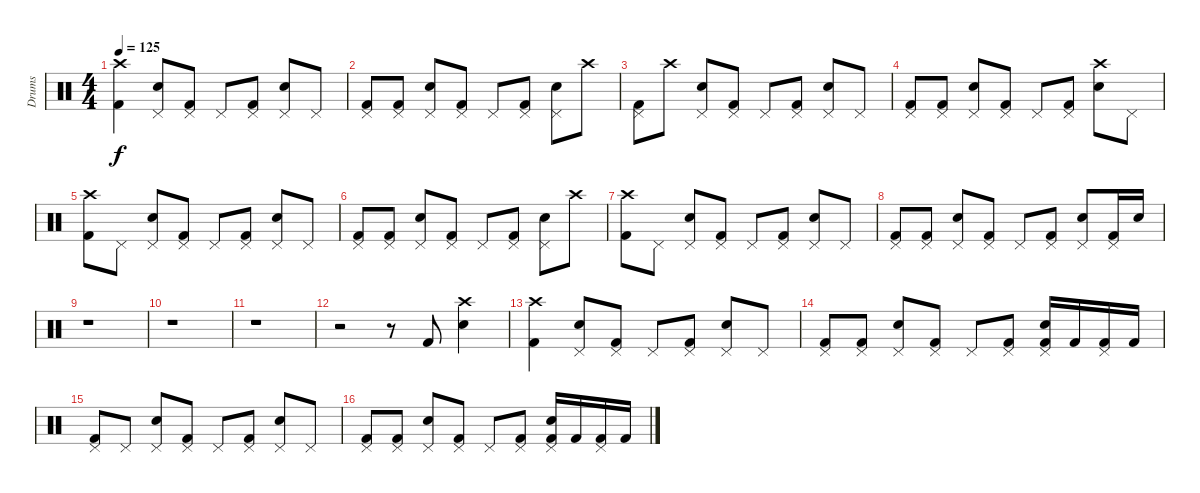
\track ("Drums" "Drums") {instrument percussion}
\staff {score}
\articulation defaults
\ts (4 4)
\tempo 125
\clef neutral
\ks c
("Crash high (hit)" "Kick (hit) 2").4{dy f} ("Pedal Hi-Hat (hit)" "Snare (hit) 2").8 ("Pedal Hi-Hat (hit)" "Kick (hit) 2").8 "Pedal Hi-Hat (hit)".8 ("Pedal Hi-Hat (hit)" "Kick (hit) 2").8 ("Pedal Hi-Hat (hit)" "Snare (hit) 2").8 "Pedal Hi-Hat (hit)".8 |
("Pedal Hi-Hat (hit)" "Kick (hit) 2").8 ("Pedal Hi-Hat (hit)" "Kick (hit) 2").8 ("Pedal Hi-Hat (hit)" "Snare (hit) 2").8 ("Pedal Hi-Hat (hit)" "Kick (hit) 2").8 "Pedal Hi-Hat (hit)".8 ("Pedal Hi-Hat (hit)" "Kick (hit) 2").8 ("Pedal Hi-Hat (hit)" "Snare (hit) 2").8 "Crash high (hit)".8 |
("Pedal Hi-Hat (hit)" "Kick (hit) 2").8 "Crash high (hit)".8 ("Pedal Hi-Hat (hit)" "Snare (hit) 2").8 ("Pedal Hi-Hat (hit)" "Kick (hit) 2").8 "Pedal Hi-Hat (hit)".8 ("Pedal Hi-Hat (hit)" "Kick (hit) 2").8 ("Pedal Hi-Hat (hit)" "Snare (hit) 2").8 "Pedal Hi-Hat (hit)".8 |
("Pedal Hi-Hat (hit)" "Kick (hit) 2").8 ("Pedal Hi-Hat (hit)" "Kick (hit) 2").8 ("Pedal Hi-Hat (hit)" "Snare (hit) 2").8 ("Pedal Hi-Hat (hit)" "Kick (hit) 2").8 "Pedal Hi-Hat (hit)".8 ("Pedal Hi-Hat (hit)" "Kick (hit) 2").8 ("Crash high (hit)" "Snare (hit) 2").8 "Pedal Hi-Hat (hit)".8 |
("Crash high (hit)" "Kick (hit) 2").8 "Pedal Hi-Hat (hit)".8 ("Pedal Hi-Hat (hit)" "Snare (hit) 2").8 ("Pedal Hi-Hat (hit)" "Kick (hit) 2").8 "Pedal Hi-Hat (hit)".8 ("Pedal Hi-Hat (hit)" "Kick (hit) 2").8 ("Pedal Hi-Hat (hit)" "Snare (hit) 2").8 "Pedal Hi-Hat (hit)".8 |
("Pedal Hi-Hat (hit)" "Kick (hit) 2").8 ("Pedal Hi-Hat (hit)" "Kick (hit) 2").8 ("Pedal Hi-Hat (hit)" "Snare (hit) 2").8 ("Pedal Hi-Hat (hit)" "Kick (hit) 2").8 "Pedal Hi-Hat (hit)".8 ("Pedal Hi-Hat (hit)" "Kick (hit) 2").8 ("Pedal Hi-Hat (hit)" "Snare (hit) 2").8 "Crash high (hit)".8 |
("Crash high (hit)" "Kick (hit) 2").8 "Pedal Hi-Hat (hit)".8 ("Pedal Hi-Hat (hit)" "Snare (hit) 2").8 ("Pedal Hi-Hat (hit)" "Kick (hit) 2").8 "Pedal Hi-Hat (hit)".8 ("Pedal Hi-Hat (hit)" "Kick (hit) 2").8 ("Pedal Hi-Hat (hit)" "Snare (hit) 2").8 "Pedal Hi-Hat (hit)".8 |
("Pedal Hi-Hat (hit)" "Kick (hit) 2").8 ("Pedal Hi-Hat (hit)" "Kick (hit) 2").8 ("Pedal Hi-Hat (hit)" "Snare (hit) 2").8 ("Pedal Hi-Hat (hit)" "Kick (hit) 2").8 "Pedal Hi-Hat (hit)".8 ("Pedal Hi-Hat (hit)" "Kick (hit) 2").8 ("Pedal Hi-Hat (hit)" "Snare (hit) 2").8 ("Pedal Hi-Hat (hit)" "Kick (hit) 2").16 "Snare (hit) 2".16 |
r.1 |
r.1 |
r.1 |
r.2 r.8 "Kick (hit) 2".8 ("Crash high (hit)" "Snare (hit) 2").4 |
("Crash high (hit)" "Kick (hit) 2").4 ("Pedal Hi-Hat (hit)" "Snare (hit) 2").8 ("Pedal Hi-Hat (hit)" "Kick (hit) 2").8 "Pedal Hi-Hat (hit)".8 ("Pedal Hi-Hat (hit)" "Kick (hit) 2").8 ("Pedal Hi-Hat (hit)" "Snare (hit) 2").8 "Pedal Hi-Hat (hit)".8 |
("Pedal Hi-Hat (hit)" "Kick (hit) 2").8 ("Pedal Hi-Hat (hit)" "Kick (hit) 2").8 ("Pedal Hi-Hat (hit)" "Snare (hit) 2").8 ("Pedal Hi-Hat (hit)" "Kick (hit) 2").8 "Pedal Hi-Hat (hit)".8 ("Pedal Hi-Hat (hit)" "Kick (hit) 2").8 ("Pedal Hi-Hat (hit)" "Kick (hit) 2" "Snare (hit) 2").16 "Kick (hit) 2".16 ("Pedal Hi-Hat (hit)" "Kick (hit) 2").16 "Kick (hit) 2".16 |
("Pedal Hi-Hat (hit)" "Kick (hit) 2").8 "Pedal Hi-Hat (hit)".8 ("Pedal Hi-Hat (hit)" "Snare (hit) 2").8 ("Pedal Hi-Hat (hit)" "Kick (hit) 2").8 "Pedal Hi-Hat (hit)".8 ("Pedal Hi-Hat (hit)" "Kick (hit) 2").8 ("Pedal Hi-Hat (hit)" "Snare (hit) 2").8 "Pedal Hi-Hat (hit)".8 |
("Pedal Hi-Hat (hit)" "Kick (hit) 2").8 ("Pedal Hi-Hat (hit)" "Kick (hit) 2").8 ("Pedal Hi-Hat (hit)" "Snare (hit) 2").8 ("Pedal Hi-Hat (hit)" "Kick (hit) 2").8 "Pedal Hi-Hat (hit)".8 ("Pedal Hi-Hat (hit)" "Kick (hit) 2").8 ("Pedal Hi-Hat (hit)" "Kick (hit) 2" "Snare (hit) 2").16 "Kick (hit) 2".16 ("Pedal Hi-Hat (hit)" "Kick (hit) 2").16 "Kick (hit) 2".16
